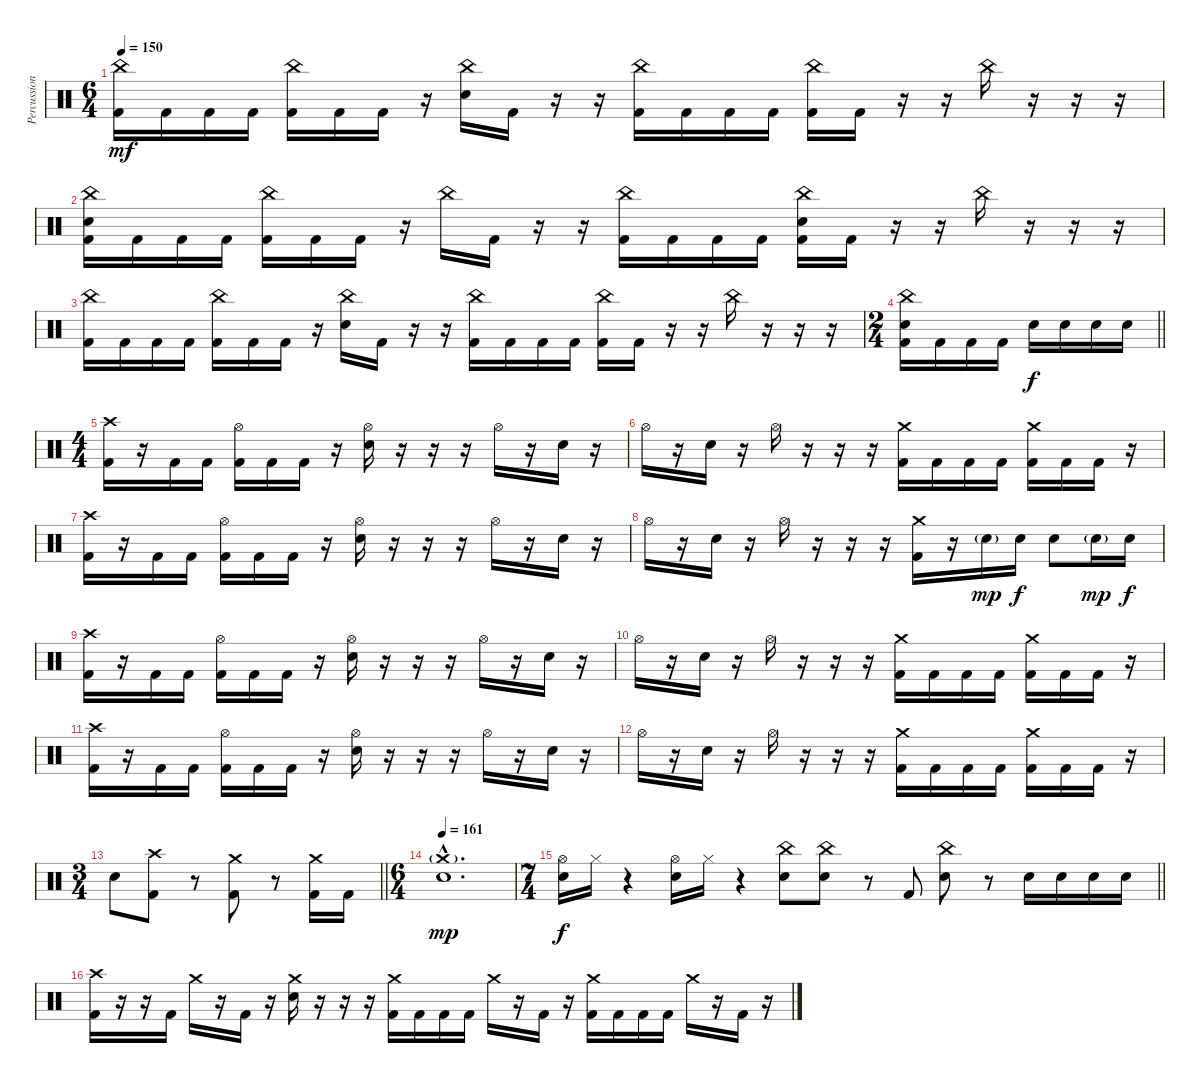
\track ("Percussion" "Percussion") {instrument percussion}
\staff {score}
\articulation defaults
\ts (6 4)
\tempo 150
\clef neutral
\ks c
("China (hit)" "Kick (hit) 2").16{dy mf} "Kick (hit) 2".16 "Kick (hit) 2".16 "Kick (hit) 2".16 ("China (hit)" "Kick (hit) 2").16 "Kick (hit) 2".16 "Kick (hit) 2".16 r.16 ("China (hit)" "Electric Snare (hit)").16 "Kick (hit) 2".16 r.16 r.16 ("China (hit)" "Kick (hit) 2").16 "Kick (hit) 2".16 "Kick (hit) 2".16 "Kick (hit) 2".16 ("China (hit)" "Kick (hit) 2").16 "Kick (hit) 2".16 r.16 r.16 "China (hit)".16 r.16 r.16 r.16 |
("China (hit)" "Electric Snare (hit)" "Kick (hit) 2").16 "Kick (hit) 2".16 "Kick (hit) 2".16 "Kick (hit) 2".16 ("China (hit)" "Kick (hit) 2").16 "Kick (hit) 2".16 "Kick (hit) 2".16 r.16 "China (hit)".16 "Kick (hit) 2".16 r.16 r.16 ("China (hit)" "Kick (hit) 2").16 "Kick (hit) 2".16 "Kick (hit) 2".16 "Kick (hit) 2".16 ("China (hit)" "Electric Snare (hit)" "Kick (hit) 2").16 "Kick (hit) 2".16 r.16 r.16 "China (hit)".16 r.16 r.16 r.16 |
("China (hit)" "Kick (hit) 2").16 "Kick (hit) 2".16 "Kick (hit) 2".16 "Kick (hit) 2".16 ("China (hit)" "Kick (hit) 2").16 "Kick (hit) 2".16 "Kick (hit) 2".16 r.16 ("China (hit)" "Electric Snare (hit)").16 "Kick (hit) 2".16 r.16 r.16 ("China (hit)" "Kick (hit) 2").16 "Kick (hit) 2".16 "Kick (hit) 2".16 "Kick (hit) 2".16 ("China (hit)" "Kick (hit) 2").16 "Kick (hit) 2".16 r.16 r.16 "China (hit)".16 r.16 r.16 r.16 |
\ts (2 4)
\barLineRight lightlight
("China (hit)" "Electric Snare (hit)" "Kick (hit) 2").16 "Kick (hit) 2".16 "Kick (hit) 2".16 "Kick (hit) 2".16 "Electric Snare (hit)".16{dy f} "Electric Snare (hit)".16 "Electric Snare (hit)".16 "Electric Snare (hit)".16 |
\ts (4 4)
\section ("" "")
("Crash high (hit)" "Kick (hit) 2").16 r.16 "Kick (hit) 2".16 "Kick (hit) 2".16 ("Hi-Hat (open)" "Kick (hit) 2").16 "Kick (hit) 2".16 "Kick (hit) 2".16 r.16 ("Hi-Hat (open)" "Electric Snare (hit)").16 r.16 r.16 r.16 "Hi-Hat (open)".16 r.16 "Electric Snare (hit)".16 r.16 |
"Hi-Hat (open)".16 r.16 "Electric Snare (hit)".16 r.16 "Hi-Hat (open)".16 r.16 r.16 r.16 ("Crash medium (hit)" "Kick (hit) 2").16 "Kick (hit) 2".16 "Kick (hit) 2".16 "Kick (hit) 2".16 ("Crash medium (hit)" "Kick (hit) 2").16 "Kick (hit) 2".16 "Kick (hit) 2".16 r.16 |
("Crash high (hit)" "Kick (hit) 2").16 r.16 "Kick (hit) 2".16 "Kick (hit) 2".16 ("Hi-Hat (open)" "Kick (hit) 2").16 "Kick (hit) 2".16 "Kick (hit) 2".16 r.16 ("Hi-Hat (open)" "Electric Snare (hit)").16 r.16 r.16 r.16 "Hi-Hat (open)".16 r.16 "Electric Snare (hit)".16 r.16 |
"Hi-Hat (open)".16 r.16 "Electric Snare (hit)".16 r.16 "Hi-Hat (open)".16 r.16 r.16 r.16 ("Crash medium (hit)" "Kick (hit) 2").16 r.16 "Electric Snare (hit)"{g}.16{dy mp} "Electric Snare (hit)".16{dy f} "Electric Snare (hit)".8 "Electric Snare (hit)"{g}.16{dy mp} "Electric Snare (hit)".16{dy f} |
("Crash high (hit)" "Kick (hit) 2").16 r.16 "Kick (hit) 2".16 "Kick (hit) 2".16 ("Hi-Hat (open)" "Kick (hit) 2").16 "Kick (hit) 2".16 "Kick (hit) 2".16 r.16 ("Hi-Hat (open)" "Electric Snare (hit)").16 r.16 r.16 r.16 "Hi-Hat (open)".16 r.16 "Electric Snare (hit)".16 r.16 |
"Hi-Hat (open)".16 r.16 "Electric Snare (hit)".16 r.16 "Hi-Hat (open)".16 r.16 r.16 r.16 ("Crash medium (hit)" "Kick (hit) 2").16 "Kick (hit) 2".16 "Kick (hit) 2".16 "Kick (hit) 2".16 ("Crash medium (hit)" "Kick (hit) 2").16 "Kick (hit) 2".16 "Kick (hit) 2".16 r.16 |
("Crash high (hit)" "Kick (hit) 2").16 r.16 "Kick (hit) 2".16 "Kick (hit) 2".16 ("Hi-Hat (open)" "Kick (hit) 2").16 "Kick (hit) 2".16 "Kick (hit) 2".16 r.16 ("Hi-Hat (open)" "Electric Snare (hit)").16 r.16 r.16 r.16 "Hi-Hat (open)".16 r.16 "Electric Snare (hit)".16 r.16 |
"Hi-Hat (open)".16 r.16 "Electric Snare (hit)".16 r.16 "Hi-Hat (open)".16 r.16 r.16 r.16 ("Crash medium (hit)" "Kick (hit) 2").16 "Kick (hit) 2".16 "Kick (hit) 2".16 "Kick (hit) 2".16 ("Crash medium (hit)" "Kick (hit) 2").16 "Kick (hit) 2".16 "Kick (hit) 2".16 r.16 |
\ts (3 4)
\barLineRight lightlight "Electric Snare (hit)".8
("Crash high (hit)" "Kick (hit) 2").8 r.8 ("Crash medium (hit)" "Kick (hit) 2").8 r.8 ("Crash medium (hit)" "Kick (hit) 2").16 "Kick (hit) 2".16 |
\ts (6 4)
\tempo 161
("Crash medium (hit)"{g hac} "Electric Snare (hit)"{hac}).1{d dy mp} |
\ts (7 4)
\barLineRight lightlight
("Hi-Hat (open)" "Electric Snare (hit)").16{dy f} "Hi-Hat (closed)".16 r.4 ("Hi-Hat (open)" "Electric Snare (hit)").16 "Hi-Hat (closed)".16 r.4 ("China (hit)" "Electric Snare (hit)").8 ("China (hit)" "Electric Snare (hit)").8 r.8 "Kick (hit) 2".8 ("China (hit)" "Electric Snare (hit)").8 r.8 "Electric Snare (hit)".16 "Electric Snare (hit)".16 "Electric Snare (hit)".16 "Electric Snare (hit)".16 |
\section ("" "")
("Crash high (hit)" "Kick (hit) 2").16 r.16 r.16 "Kick (hit) 2".16 "Crash medium (hit)".16 r.16 "Kick (hit) 2".16 r.16 ("Crash medium (hit)" "Electric Snare (hit)").16 r.16 r.16 r.16 ("Crash medium (hit)" "Kick (hit) 2").16 "Kick (hit) 2".16 "Kick (hit) 2".16 "Kick (hit) 2".16 "Crash medium (hit)".16 r.16 "Kick (hit) 2".16 r.16 ("Crash medium (hit)" "Kick (hit) 2").16 "Kick (hit) 2".16 "Kick (hit) 2".16 "Kick (hit) 2".16 "Crash medium (hit)".16 r.16 "Kick (hit) 2".16 r.16
